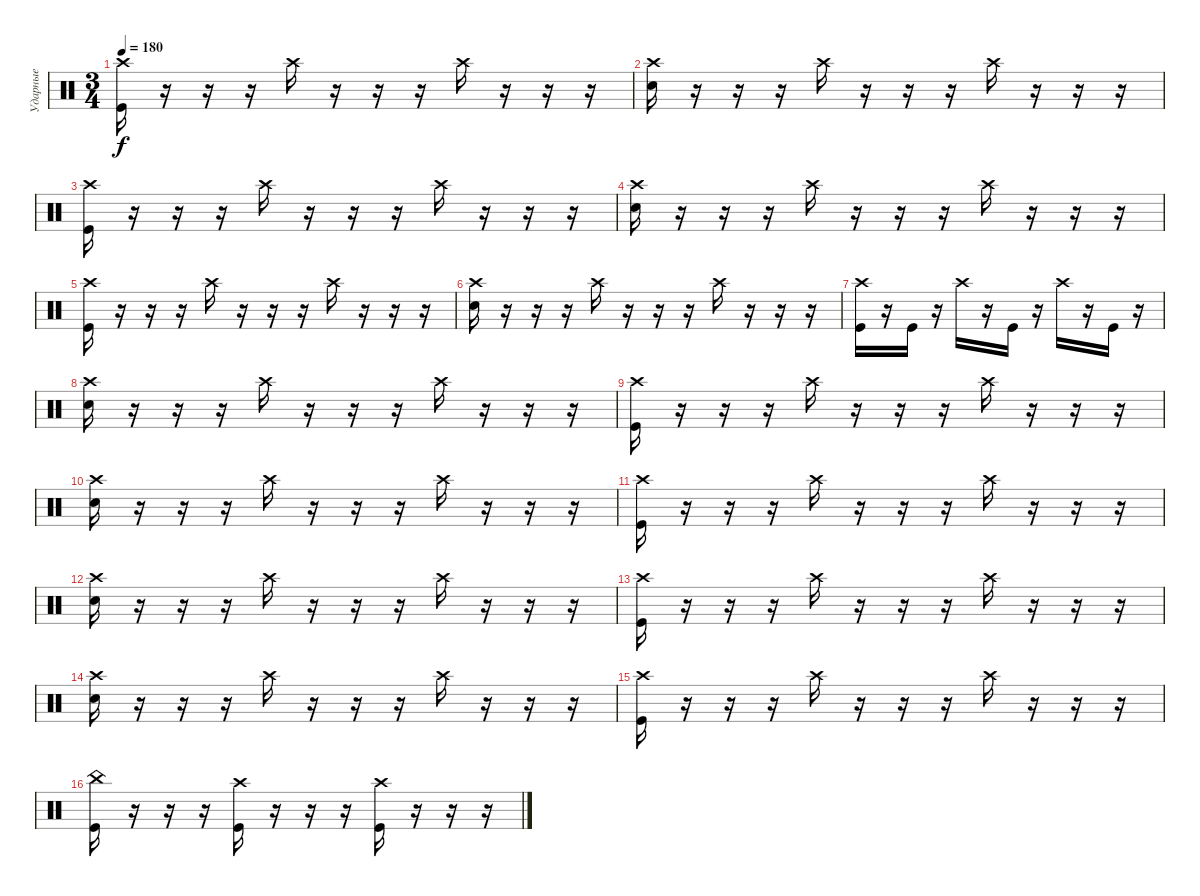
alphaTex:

\track ("Ударные" "Ударные") {instrument percussion}
\staff {score}
\articulation defaults
\ts (3 4)
\tempo 180
\clef neutral
\ks c
("Crash high (hit)" "Kick (hit)").16{dy f} r.16 r.16 r.16 "Crash high (hit)".16 r.16 r.16 r.16 "Crash high (hit)".16 r.16 r.16 r.16 |
("Crash high (hit)" "Electric Snare (hit)").16 r.16 r.16 r.16 "Crash high (hit)".16 r.16 r.16 r.16 "Crash high (hit)".16 r.16 r.16 r.16 |
("Crash high (hit)" "Kick (hit)").16 r.16 r.16 r.16 "Crash high (hit)".16 r.16 r.16 r.16 "Crash high (hit)".16 r.16 r.16 r.16 |
("Crash high (hit)" "Electric Snare (hit)").16 r.16 r.16 r.16 "Crash high (hit)".16 r.16 r.16 r.16 "Crash high (hit)".16 r.16 r.16 r.16 |
("Crash high (hit)" "Kick (hit)").16 r.16 r.16 r.16 "Crash high (hit)".16 r.16 r.16 r.16 "Crash high (hit)".16 r.16 r.16 r.16 |
("Crash high (hit)" "Electric Snare (hit)").16 r.16 r.16 r.16 "Crash high (hit)".16 r.16 r.16 r.16 "Crash high (hit)".16 r.16 r.16 r.16 |
("Crash high (hit)" "Kick (hit)").16 r.16 "Kick (hit)".16 r.16 "Crash high (hit)".16 r.16 "Kick (hit)".16 r.16 "Crash high (hit)".16 r.16 "Kick (hit)".16 r.16 |
("Crash high (hit)" "Electric Snare (hit)").16 r.16 r.16 r.16 "Crash high (hit)".16 r.16 r.16 r.16 "Crash high (hit)".16 r.16 r.16 r.16 |
("Crash high (hit)" "Kick (hit)").16 r.16 r.16 r.16 "Crash high (hit)".16 r.16 r.16 r.16 "Crash high (hit)".16 r.16 r.16 r.16 |
("Crash high (hit)" "Electric Snare (hit)").16 r.16 r.16 r.16 "Crash high (hit)".16 r.16 r.16 r.16 "Crash high (hit)".16 r.16 r.16 r.16 |
("Crash high (hit)" "Kick (hit)").16 r.16 r.16 r.16 "Crash high (hit)".16 r.16 r.16 r.16 "Crash high (hit)".16 r.16 r.16 r.16 |
("Crash high (hit)" "Electric Snare (hit)").16 r.16 r.16 r.16 "Crash high (hit)".16 r.16 r.16 r.16 "Crash high (hit)".16 r.16 r.16 r.16 |
("Crash high (hit)" "Kick (hit)").16 r.16 r.16 r.16 "Crash high (hit)".16 r.16 r.16 r.16 "Crash high (hit)".16 r.16 r.16 r.16 |
("Crash high (hit)" "Electric Snare (hit)").16 r.16 r.16 r.16 "Crash high (hit)".16 r.16 r.16 r.16 "Crash high (hit)".16 r.16 r.16 r.16 |
("Crash high (hit)" "Kick (hit)").16 r.16 r.16 r.16 "Crash high (hit)".16 r.16 r.16 r.16 "Crash high (hit)".16 r.16 r.16 r.16 |
("China (hit)" "Kick (hit)").16 r.16 r.16 r.16 ("Crash high (hit)" "Kick (hit)").16 r.16 r.16 r.16 ("Crash high (hit)" "Kick (hit)").16 r.16 r.16 r.16
